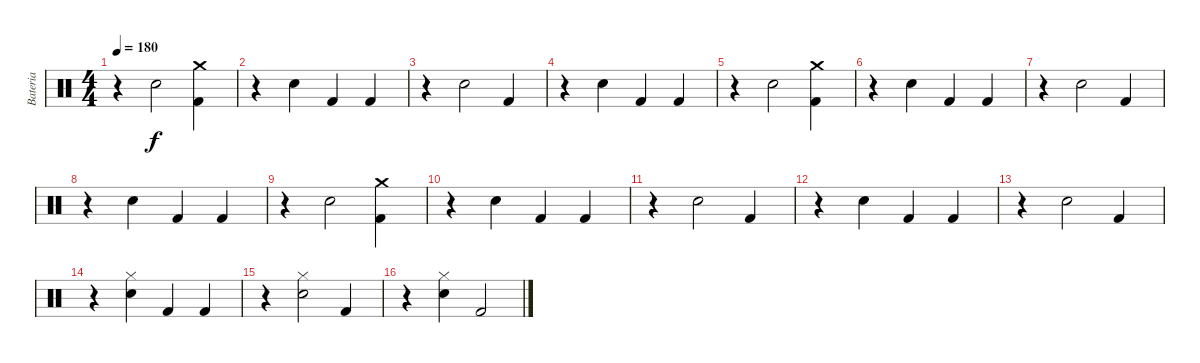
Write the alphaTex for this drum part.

\track ("Bateria" "Bateria") {instrument percussion}
\staff {score}
\articulation defaults
\ts (4 4)
\tempo 180
\clef neutral
\ks c
r.4{dy f} "Electric Snare (hit)".2 ("Crash medium (hit)" "Kick (hit) 2").4 |
r.4 "Electric Snare (hit)".4 "Kick (hit) 2".4 "Kick (hit) 2".4 |
r.4 "Electric Snare (hit)".2 "Kick (hit) 2".4 |
r.4 "Electric Snare (hit)".4 "Kick (hit) 2".4 "Kick (hit) 2".4 |
r.4 "Electric Snare (hit)".2 ("Crash medium (hit)" "Kick (hit) 2").4 |
r.4 "Electric Snare (hit)".4 "Kick (hit) 2".4 "Kick (hit) 2".4 |
r.4 "Electric Snare (hit)".2 "Kick (hit) 2".4 |
r.4 "Electric Snare (hit)".4 "Kick (hit) 2".4 "Kick (hit) 2".4 |
r.4 "Electric Snare (hit)".2 ("Crash medium (hit)" "Kick (hit) 2").4 |
r.4 "Electric Snare (hit)".4 "Kick (hit) 2".4 "Kick (hit) 2".4 |
r.4 "Electric Snare (hit)".2 "Kick (hit) 2".4 |
r.4 "Electric Snare (hit)".4 "Kick (hit) 2".4 "Kick (hit) 2".4 |
r.4 "Electric Snare (hit)".2 "Kick (hit) 2".4 |
r.4 ("Electric Snare (hit)" "Hi-Hat (closed)").4 "Kick (hit) 2".4 "Kick (hit) 2".4 |
r.4 ("Electric Snare (hit)" "Hi-Hat (closed)").2 "Kick (hit) 2".4 |
r.4 ("Electric Snare (hit)" "Hi-Hat (closed)").4 "Kick (hit) 2".2
